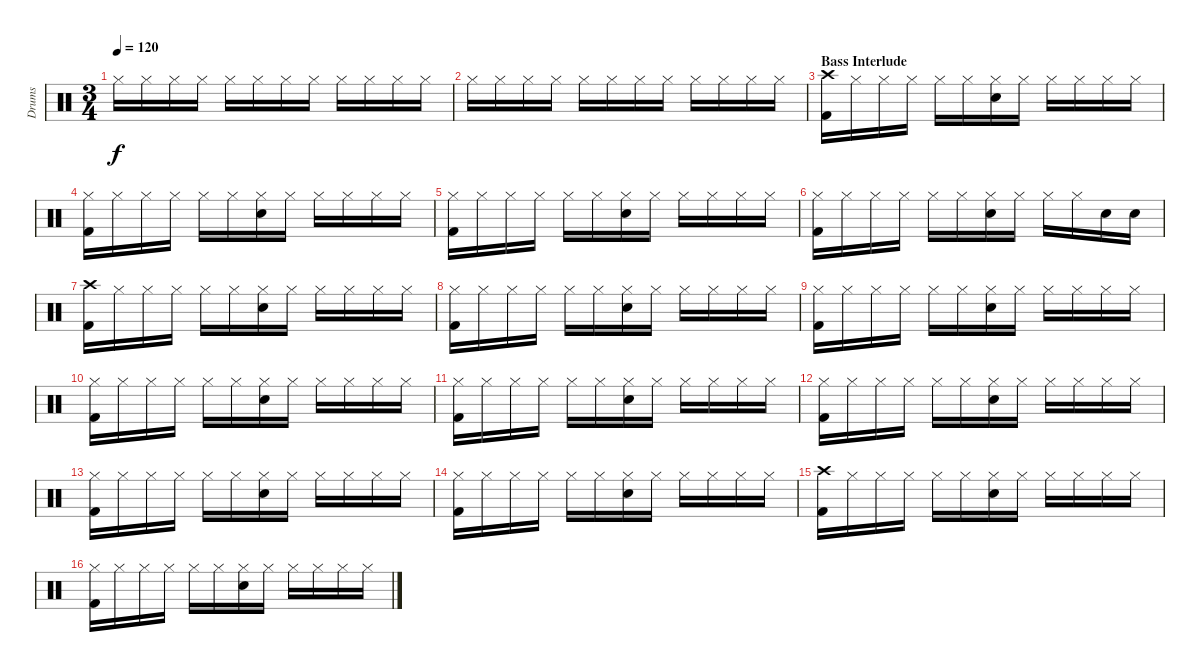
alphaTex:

\track ("Drums" "Drums") {instrument percussion}
\staff {score}
\articulation defaults
\ts (3 4)
\tempo 120
\clef neutral
\ks c "Hi-Hat (closed)".16{dy f} "Hi-Hat (closed)".16 "Hi-Hat (closed)".16 "Hi-Hat (closed)".16 "Hi-Hat (closed)".16 "Hi-Hat (closed)".16 "Hi-Hat (closed)".16 "Hi-Hat (closed)".16 "Hi-Hat (closed)".16 "Hi-Hat (closed)".16 "Hi-Hat (closed)".16 "Hi-Hat (closed)".16
|
"Hi-Hat (closed)".16 "Hi-Hat (closed)".16 "Hi-Hat (closed)".16 "Hi-Hat (closed)".16 "Hi-Hat (closed)".16 "Hi-Hat (closed)".16 "Hi-Hat (closed)".16 "Hi-Hat (closed)".16 "Hi-Hat (closed)".16 "Hi-Hat (closed)".16 "Hi-Hat (closed)".16 "Hi-Hat (closed)".16 |
\section ("" "Bass Interlude")
("Crash high (hit)" "Kick (hit) 2").16 "Hi-Hat (closed)".16 "Hi-Hat (closed)".16 "Hi-Hat (closed)".16 "Hi-Hat (closed)".16 "Hi-Hat (closed)".16 ("Electric Snare (hit)" "Hi-Hat (closed)").16 "Hi-Hat (closed)".16 "Hi-Hat (closed)".16 "Hi-Hat (closed)".16 "Hi-Hat (closed)".16 "Hi-Hat (closed)".16 |
("Hi-Hat (closed)" "Kick (hit) 2").16 "Hi-Hat (closed)".16 "Hi-Hat (closed)".16 "Hi-Hat (closed)".16 "Hi-Hat (closed)".16 "Hi-Hat (closed)".16 ("Electric Snare (hit)" "Hi-Hat (closed)").16 "Hi-Hat (closed)".16 "Hi-Hat (closed)".16 "Hi-Hat (closed)".16 "Hi-Hat (closed)".16 "Hi-Hat (closed)".16 |
("Hi-Hat (closed)" "Kick (hit) 2").16 "Hi-Hat (closed)".16 "Hi-Hat (closed)".16 "Hi-Hat (closed)".16 "Hi-Hat (closed)".16 "Hi-Hat (closed)".16 ("Electric Snare (hit)" "Hi-Hat (closed)").16 "Hi-Hat (closed)".16 "Hi-Hat (closed)".16 "Hi-Hat (closed)".16 "Hi-Hat (closed)".16 "Hi-Hat (closed)".16 |
("Hi-Hat (closed)" "Kick (hit) 2").16 "Hi-Hat (closed)".16 "Hi-Hat (closed)".16 "Hi-Hat (closed)".16 "Hi-Hat (closed)".16 "Hi-Hat (closed)".16 ("Electric Snare (hit)" "Hi-Hat (closed)").16 "Hi-Hat (closed)".16 "Hi-Hat (closed)".16 "Hi-Hat (closed)".16 "Electric Snare (hit)".16 "Electric Snare (hit)".16 |
("Crash high (hit)" "Kick (hit) 2").16 "Hi-Hat (closed)".16 "Hi-Hat (closed)".16 "Hi-Hat (closed)".16 "Hi-Hat (closed)".16 "Hi-Hat (closed)".16 ("Electric Snare (hit)" "Hi-Hat (closed)").16 "Hi-Hat (closed)".16 "Hi-Hat (closed)".16 "Hi-Hat (closed)".16 "Hi-Hat (closed)".16 "Hi-Hat (closed)".16 |
("Hi-Hat (closed)" "Kick (hit) 2").16 "Hi-Hat (closed)".16 "Hi-Hat (closed)".16 "Hi-Hat (closed)".16 "Hi-Hat (closed)".16 "Hi-Hat (closed)".16 ("Electric Snare (hit)" "Hi-Hat (closed)").16 "Hi-Hat (closed)".16 "Hi-Hat (closed)".16 "Hi-Hat (closed)".16 "Hi-Hat (closed)".16 "Hi-Hat (closed)".16 |
("Hi-Hat (closed)" "Kick (hit) 2").16 "Hi-Hat (closed)".16 "Hi-Hat (closed)".16 "Hi-Hat (closed)".16 "Hi-Hat (closed)".16 "Hi-Hat (closed)".16 ("Electric Snare (hit)" "Hi-Hat (closed)").16 "Hi-Hat (closed)".16 "Hi-Hat (closed)".16 "Hi-Hat (closed)".16 "Hi-Hat (closed)".16 "Hi-Hat (closed)".16 |
("Hi-Hat (closed)" "Kick (hit) 2").16 "Hi-Hat (closed)".16 "Hi-Hat (closed)".16 "Hi-Hat (closed)".16 "Hi-Hat (closed)".16 "Hi-Hat (closed)".16 ("Electric Snare (hit)" "Hi-Hat (closed)").16 "Hi-Hat (closed)".16 "Hi-Hat (closed)".16 "Hi-Hat (closed)".16 "Hi-Hat (closed)".16 "Hi-Hat (closed)".16 |
("Hi-Hat (closed)" "Kick (hit) 2").16 "Hi-Hat (closed)".16 "Hi-Hat (closed)".16 "Hi-Hat (closed)".16 "Hi-Hat (closed)".16 "Hi-Hat (closed)".16 ("Electric Snare (hit)" "Hi-Hat (closed)").16 "Hi-Hat (closed)".16 "Hi-Hat (closed)".16 "Hi-Hat (closed)".16 "Hi-Hat (closed)".16 "Hi-Hat (closed)".16 |
("Hi-Hat (closed)" "Kick (hit) 2").16 "Hi-Hat (closed)".16 "Hi-Hat (closed)".16 "Hi-Hat (closed)".16 "Hi-Hat (closed)".16 "Hi-Hat (closed)".16 ("Electric Snare (hit)" "Hi-Hat (closed)").16 "Hi-Hat (closed)".16 "Hi-Hat (closed)".16 "Hi-Hat (closed)".16 "Hi-Hat (closed)".16 "Hi-Hat (closed)".16 |
("Hi-Hat (closed)" "Kick (hit) 2").16 "Hi-Hat (closed)".16 "Hi-Hat (closed)".16 "Hi-Hat (closed)".16 "Hi-Hat (closed)".16 "Hi-Hat (closed)".16 ("Electric Snare (hit)" "Hi-Hat (closed)").16 "Hi-Hat (closed)".16 "Hi-Hat (closed)".16 "Hi-Hat (closed)".16 "Hi-Hat (closed)".16 "Hi-Hat (closed)".16 |
("Hi-Hat (closed)" "Kick (hit) 2").16 "Hi-Hat (closed)".16 "Hi-Hat (closed)".16 "Hi-Hat (closed)".16 "Hi-Hat (closed)".16 "Hi-Hat (closed)".16 ("Electric Snare (hit)" "Hi-Hat (closed)").16 "Hi-Hat (closed)".16 "Hi-Hat (closed)".16 "Hi-Hat (closed)".16 "Hi-Hat (closed)".16 "Hi-Hat (closed)".16 |
("Crash high (hit)" "Kick (hit) 2").16 "Hi-Hat (closed)".16 "Hi-Hat (closed)".16 "Hi-Hat (closed)".16 "Hi-Hat (closed)".16 "Hi-Hat (closed)".16 ("Electric Snare (hit)" "Hi-Hat (closed)").16 "Hi-Hat (closed)".16 "Hi-Hat (closed)".16 "Hi-Hat (closed)".16 "Hi-Hat (closed)".16 "Hi-Hat (closed)".16 |
("Hi-Hat (closed)" "Kick (hit) 2").16 "Hi-Hat (closed)".16 "Hi-Hat (closed)".16 "Hi-Hat (closed)".16 "Hi-Hat (closed)".16 "Hi-Hat (closed)".16 ("Electric Snare (hit)" "Hi-Hat (closed)").16 "Hi-Hat (closed)".16 "Hi-Hat (closed)".16 "Hi-Hat (closed)".16 "Hi-Hat (closed)".16 "Hi-Hat (closed)".16
